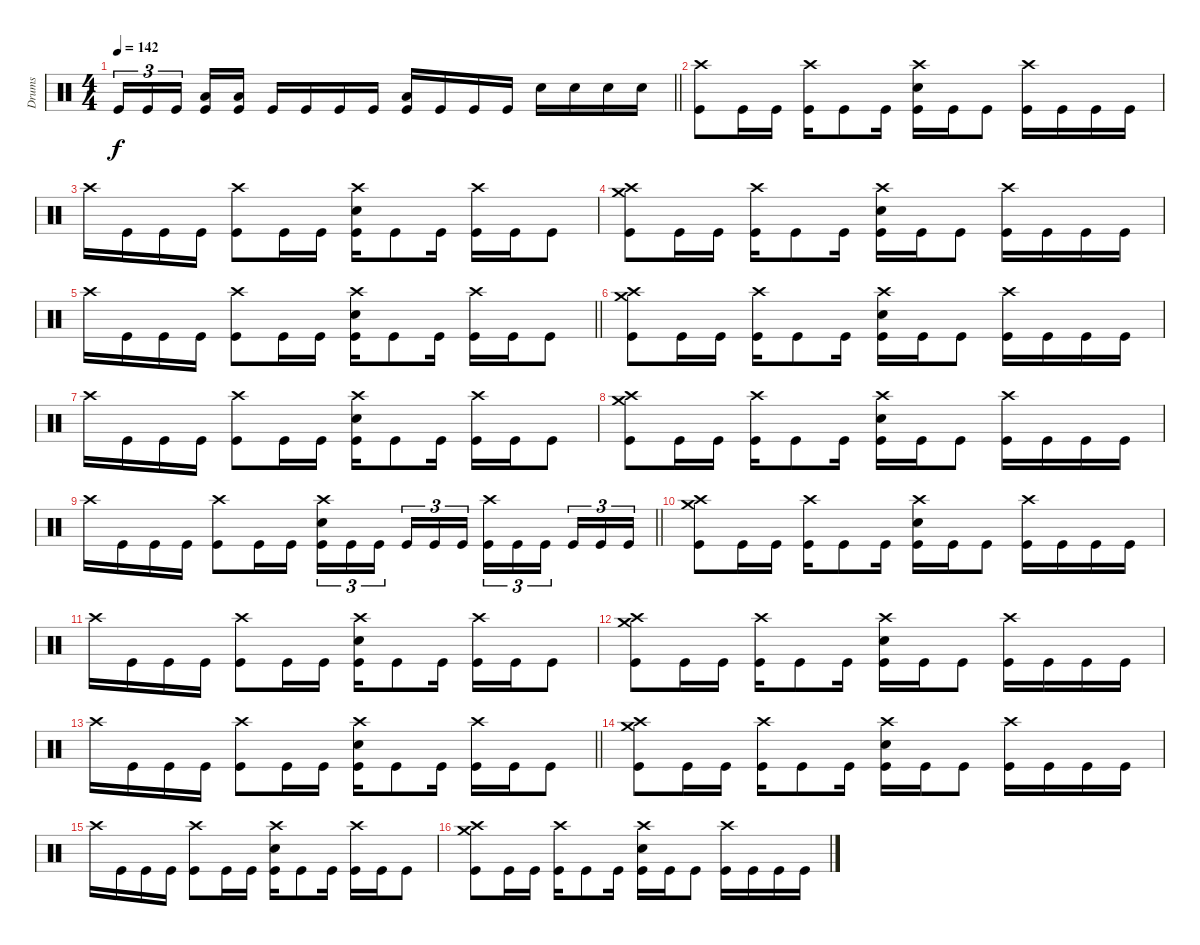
\track ("Drums" "Drums") {instrument percussion}
\staff
\articulation defaults
\ts (4 4)
\tempo 142
\clef neutral
\barLineRight lightlight
\ks c "Kick (hit)".16{tu (3 2) dy f} "Kick (hit)".16{tu (3 2)} "Kick (hit)".16{tu (3 2) beam splitsecondary}
("Low Floor Tom (hit)" "Kick (hit)").16 ("Low Floor Tom (hit)" "Kick (hit)").16 "Kick (hit)".16 "Kick (hit)".16 "Kick (hit)".16 "Kick (hit)".16 ("Low Floor Tom (hit)" "Kick (hit)").16 "Kick (hit)".16 "Kick (hit)".16 "Kick (hit)".16 "Electric Snare (hit)".16 "Electric Snare (hit)".16 "Electric Snare (hit)".16 "Electric Snare (hit)".16 |
\section ("" "")
("Crash high (hit)" "Kick (hit)").8 "Kick (hit)".16 "Kick (hit)".16 ("Crash high (hit)" "Kick (hit)").16 "Kick (hit)".8 "Kick (hit)".16 ("Crash high (hit)" "Electric Snare (hit)" "Kick (hit)").16 "Kick (hit)".16 "Kick (hit)".8 ("Crash high (hit)" "Kick (hit)").16 "Kick (hit)".16 "Kick (hit)".16 "Kick (hit)".16 |
"Crash high (hit)".16 "Kick (hit)".16 "Kick (hit)".16 "Kick (hit)".16 ("Crash high (hit)" "Kick (hit)").8 "Kick (hit)".16 "Kick (hit)".16 ("Crash high (hit)" "Electric Snare (hit)" "Kick (hit)").16 "Kick (hit)".8 "Kick (hit)".16 ("Crash high (hit)" "Kick (hit)").16 "Kick (hit)".16 "Kick (hit)".8 |
("Crash high (hit)" "Crash medium (hit)" "Kick (hit)").8 "Kick (hit)".16 "Kick (hit)".16 ("Crash high (hit)" "Kick (hit)").16 "Kick (hit)".8 "Kick (hit)".16 ("Crash high (hit)" "Electric Snare (hit)" "Kick (hit)").16 "Kick (hit)".16 "Kick (hit)".8 ("Crash high (hit)" "Kick (hit)").16 "Kick (hit)".16 "Kick (hit)".16 "Kick (hit)".16 |
\barLineRight lightlight "Crash high (hit)".16 "Kick (hit)".16 "Kick (hit)".16 "Kick (hit)".16
("Crash high (hit)" "Kick (hit)").8 "Kick (hit)".16 "Kick (hit)".16 ("Crash high (hit)" "Electric Snare (hit)" "Kick (hit)").16 "Kick (hit)".8 "Kick (hit)".16 ("Crash high (hit)" "Kick (hit)").16 "Kick (hit)".16 "Kick (hit)".8 |
("Crash high (hit)" "Crash medium (hit)" "Kick (hit)").8 "Kick (hit)".16 "Kick (hit)".16 ("Crash high (hit)" "Kick (hit)").16 "Kick (hit)".8 "Kick (hit)".16 ("Crash high (hit)" "Electric Snare (hit)" "Kick (hit)").16 "Kick (hit)".16 "Kick (hit)".8 ("Crash high (hit)" "Kick (hit)").16 "Kick (hit)".16 "Kick (hit)".16 "Kick (hit)".16 |
"Crash high (hit)".16 "Kick (hit)".16 "Kick (hit)".16 "Kick (hit)".16 ("Crash high (hit)" "Kick (hit)").8 "Kick (hit)".16 "Kick (hit)".16 ("Crash high (hit)" "Electric Snare (hit)" "Kick (hit)").16 "Kick (hit)".8 "Kick (hit)".16 ("Crash high (hit)" "Kick (hit)").16 "Kick (hit)".16 "Kick (hit)".8 |
("Crash high (hit)" "Crash medium (hit)" "Kick (hit)").8 "Kick (hit)".16 "Kick (hit)".16 ("Crash high (hit)" "Kick (hit)").16 "Kick (hit)".8 "Kick (hit)".16 ("Crash high (hit)" "Electric Snare (hit)" "Kick (hit)").16 "Kick (hit)".16 "Kick (hit)".8 ("Crash high (hit)" "Kick (hit)").16 "Kick (hit)".16 "Kick (hit)".16 "Kick (hit)".16 |
\barLineRight lightlight "Crash high (hit)".16 "Kick (hit)".16 "Kick (hit)".16 "Kick (hit)".16
("Crash high (hit)" "Kick (hit)").8 "Kick (hit)".16 "Kick (hit)".16 ("Crash high (hit)" "Electric Snare (hit)" "Kick (hit)").16{tu (3 2)} "Kick (hit)".16{tu (3 2)} "Kick (hit)".16{tu (3 2) beam splitsecondary} "Kick (hit)".16{tu (3 2)} "Kick (hit)".16{tu (3 2)} "Kick (hit)".16{tu (3 2)} ("Crash high (hit)" "Kick (hit)").16{tu (3 2)} "Kick (hit)".16{tu (3 2)} "Kick (hit)".16{tu (3 2) beam splitsecondary} "Kick (hit)".16{tu (3 2)} "Kick (hit)".16{tu (3 2)} "Kick (hit)".16{tu (3 2)} |
("Crash high (hit)" "Crash medium (hit)" "Kick (hit)").8 "Kick (hit)".16 "Kick (hit)".16 ("Crash high (hit)" "Kick (hit)").16 "Kick (hit)".8 "Kick (hit)".16 ("Crash high (hit)" "Electric Snare (hit)" "Kick (hit)").16 "Kick (hit)".16 "Kick (hit)".8 ("Crash high (hit)" "Kick (hit)").16 "Kick (hit)".16 "Kick (hit)".16 "Kick (hit)".16 |
"Crash high (hit)".16 "Kick (hit)".16 "Kick (hit)".16 "Kick (hit)".16 ("Crash high (hit)" "Kick (hit)").8 "Kick (hit)".16 "Kick (hit)".16 ("Crash high (hit)" "Electric Snare (hit)" "Kick (hit)").16 "Kick (hit)".8 "Kick (hit)".16 ("Crash high (hit)" "Kick (hit)").16 "Kick (hit)".16 "Kick (hit)".8 |
("Crash high (hit)" "Crash medium (hit)" "Kick (hit)").8 "Kick (hit)".16 "Kick (hit)".16 ("Crash high (hit)" "Kick (hit)").16 "Kick (hit)".8 "Kick (hit)".16 ("Crash high (hit)" "Electric Snare (hit)" "Kick (hit)").16 "Kick (hit)".16 "Kick (hit)".8 ("Crash high (hit)" "Kick (hit)").16 "Kick (hit)".16 "Kick (hit)".16 "Kick (hit)".16 |
\barLineRight lightlight "Crash high (hit)".16 "Kick (hit)".16 "Kick (hit)".16 "Kick (hit)".16
("Crash high (hit)" "Kick (hit)").8 "Kick (hit)".16 "Kick (hit)".16 ("Crash high (hit)" "Electric Snare (hit)" "Kick (hit)").16 "Kick (hit)".8 "Kick (hit)".16 ("Crash high (hit)" "Kick (hit)").16 "Kick (hit)".16 "Kick (hit)".8 |
("Crash high (hit)" "Crash medium (hit)" "Kick (hit)").8 "Kick (hit)".16 "Kick (hit)".16 ("Crash high (hit)" "Kick (hit)").16 "Kick (hit)".8 "Kick (hit)".16 ("Crash high (hit)" "Electric Snare (hit)" "Kick (hit)").16 "Kick (hit)".16 "Kick (hit)".8 ("Crash high (hit)" "Kick (hit)").16 "Kick (hit)".16 "Kick (hit)".16 "Kick (hit)".16 |
"Crash high (hit)".16 "Kick (hit)".16 "Kick (hit)".16 "Kick (hit)".16 ("Crash high (hit)" "Kick (hit)").8 "Kick (hit)".16 "Kick (hit)".16 ("Crash high (hit)" "Electric Snare (hit)" "Kick (hit)").16 "Kick (hit)".8 "Kick (hit)".16 ("Crash high (hit)" "Kick (hit)").16 "Kick (hit)".16 "Kick (hit)".8 |
("Crash high (hit)" "Crash medium (hit)" "Kick (hit)").8 "Kick (hit)".16 "Kick (hit)".16 ("Crash high (hit)" "Kick (hit)").16 "Kick (hit)".8 "Kick (hit)".16 ("Crash high (hit)" "Electric Snare (hit)" "Kick (hit)").16 "Kick (hit)".16 "Kick (hit)".8 ("Crash high (hit)" "Kick (hit)").16 "Kick (hit)".16 "Kick (hit)".16 "Kick (hit)".16
